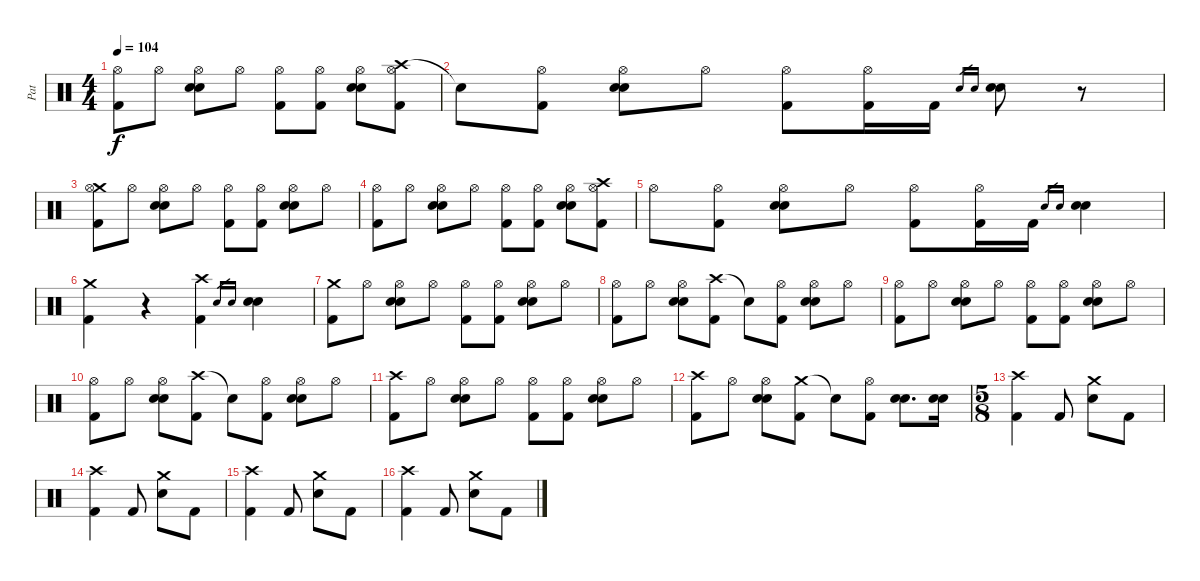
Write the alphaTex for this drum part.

\track ("Pat" "Pat") {instrument percussion}
\staff {score}
\articulation defaults
\ts (4 4)
\tempo 104
\clef neutral
\ks c
("Hi-Hat (open)" "Kick (hit) 2").8{dy f} "Hi-Hat (open)".8 ("Hi-Hat (open)" "Electric Snare (hit)" "Snare (hit) 2").8 "Hi-Hat (open)".8 ("Hi-Hat (open)" "Kick (hit) 2").8 ("Hi-Hat (open)" "Kick (hit) 2").8 ("Hi-Hat (open)" "Electric Snare (hit)" "Snare (hit) 2").8 ("Crash high (hit)" "Hi-Hat (open)" "Kick (hit) 2").8 |
"Snare (hit)"{t}.8 ("Hi-Hat (open)" "Kick (hit) 2").8 ("Hi-Hat (open)" "Electric Snare (hit)" "Snare (hit) 2").8 "Hi-Hat (open)".8 ("Hi-Hat (open)" "Kick (hit) 2").8 ("Hi-Hat (open)" "Kick (hit) 2").16 "Kick (hit) 2".16 "Electric Snare (hit)".16{gr} "Snare (hit) 2".16{gr} ("Electric Snare (hit)" "Snare (hit) 2").8 r.8 |
("Crash medium (hit)" "Hi-Hat (open)" "Kick (hit) 2").8 "Hi-Hat (open)".8 ("Hi-Hat (open)" "Electric Snare (hit)" "Snare (hit) 2").8 "Hi-Hat (open)".8 ("Hi-Hat (open)" "Kick (hit) 2").8 ("Hi-Hat (open)" "Kick (hit) 2").8 ("Hi-Hat (open)" "Electric Snare (hit)" "Snare (hit) 2").8 "Hi-Hat (open)".8 |
("Hi-Hat (open)" "Kick (hit) 2").8 "Hi-Hat (open)".8 ("Hi-Hat (open)" "Electric Snare (hit)" "Snare (hit) 2").8 "Hi-Hat (open)".8 ("Hi-Hat (open)" "Kick (hit) 2").8 ("Hi-Hat (open)" "Kick (hit) 2").8 ("Hi-Hat (open)" "Electric Snare (hit)" "Snare (hit) 2").8 ("Crash high (hit)" "Hi-Hat (open)" "Kick (hit) 2").8 |
"Hi-Hat (open)".8 ("Hi-Hat (open)" "Kick (hit) 2").8 ("Hi-Hat (open)" "Electric Snare (hit)" "Snare (hit) 2").8 "Hi-Hat (open)".8 ("Hi-Hat (open)" "Kick (hit) 2").8 ("Hi-Hat (open)" "Kick (hit) 2").16 "Kick (hit) 2".16 "Electric Snare (hit)".16{gr} "Snare (hit) 2".16{gr} ("Electric Snare (hit)" "Snare (hit) 2").4 |
("Crash medium (hit)" "Kick (hit) 2").4 r.4 ("Crash high (hit)" "Kick (hit) 2").4 "Electric Snare (hit)".16{gr} "Snare (hit) 2".16{gr} ("Electric Snare (hit)" "Snare (hit) 2").4 |
("Crash medium (hit)" "Kick (hit) 2").8 "Hi-Hat (open)".8 ("Hi-Hat (open)" "Electric Snare (hit)" "Snare (hit) 2").8 "Hi-Hat (open)".8 ("Hi-Hat (open)" "Kick (hit) 2").8 ("Hi-Hat (open)" "Kick (hit) 2").8 ("Hi-Hat (open)" "Electric Snare (hit)" "Snare (hit) 2").8 "Hi-Hat (open)".8 |
("Hi-Hat (open)" "Kick (hit) 2").8 "Hi-Hat (open)".8 ("Hi-Hat (open)" "Electric Snare (hit)" "Snare (hit) 2").8 ("Crash high (hit)" "Kick (hit) 2").8 "Snare (hit)"{t}.8 ("Hi-Hat (open)" "Kick (hit) 2").8 ("Hi-Hat (open)" "Electric Snare (hit)" "Snare (hit) 2").8 "Hi-Hat (open)".8 |
("Hi-Hat (open)" "Kick (hit) 2").8 "Hi-Hat (open)".8 ("Hi-Hat (open)" "Electric Snare (hit)" "Snare (hit) 2").8 "Hi-Hat (open)".8 ("Hi-Hat (open)" "Kick (hit) 2").8 ("Hi-Hat (open)" "Kick (hit) 2").8 ("Hi-Hat (open)" "Electric Snare (hit)" "Snare (hit) 2").8 "Hi-Hat (open)".8 |
("Hi-Hat (open)" "Kick (hit) 2").8 "Hi-Hat (open)".8 ("Hi-Hat (open)" "Electric Snare (hit)" "Snare (hit) 2").8 ("Crash high (hit)" "Kick (hit) 2").8 "Snare (hit)"{t}.8 ("Hi-Hat (open)" "Kick (hit) 2").8 ("Hi-Hat (open)" "Electric Snare (hit)" "Snare (hit) 2").8 "Hi-Hat (open)".8 |
("Crash high (hit)" "Kick (hit) 2").8 "Hi-Hat (open)".8 ("Hi-Hat (open)" "Electric Snare (hit)" "Snare (hit) 2").8 "Hi-Hat (open)".8 ("Hi-Hat (open)" "Kick (hit) 2").8 ("Hi-Hat (open)" "Kick (hit) 2").8 ("Hi-Hat (open)" "Electric Snare (hit)" "Snare (hit) 2").8 "Hi-Hat (open)".8 |
("Crash high (hit)" "Kick (hit) 2").8 "Hi-Hat (open)".8 ("Hi-Hat (open)" "Electric Snare (hit)" "Snare (hit) 2").8 ("Crash medium (hit)" "Kick (hit) 2").8 "Snare (hit)"{t}.8 ("Hi-Hat (open)" "Kick (hit) 2").8 ("Electric Snare (hit)" "Snare (hit) 2").8{d} ("Electric Snare (hit)" "Snare (hit) 2").16 |
\ts (5 8)
("Crash high (hit)" "Kick (hit) 2").4 "Kick (hit) 2".8 ("Crash medium (hit)" "Electric Snare (hit)").8 "Kick (hit) 2".8 |
("Crash high (hit)" "Kick (hit) 2").4 "Kick (hit) 2".8 ("Crash medium (hit)" "Electric Snare (hit)").8 "Kick (hit) 2".8 |
("Crash high (hit)" "Kick (hit) 2").4 "Kick (hit) 2".8 ("Crash medium (hit)" "Electric Snare (hit)").8 "Kick (hit) 2".8 |
("Crash high (hit)" "Kick (hit) 2").4 "Kick (hit) 2".8 ("Crash medium (hit)" "Electric Snare (hit)").8 "Kick (hit) 2".8
